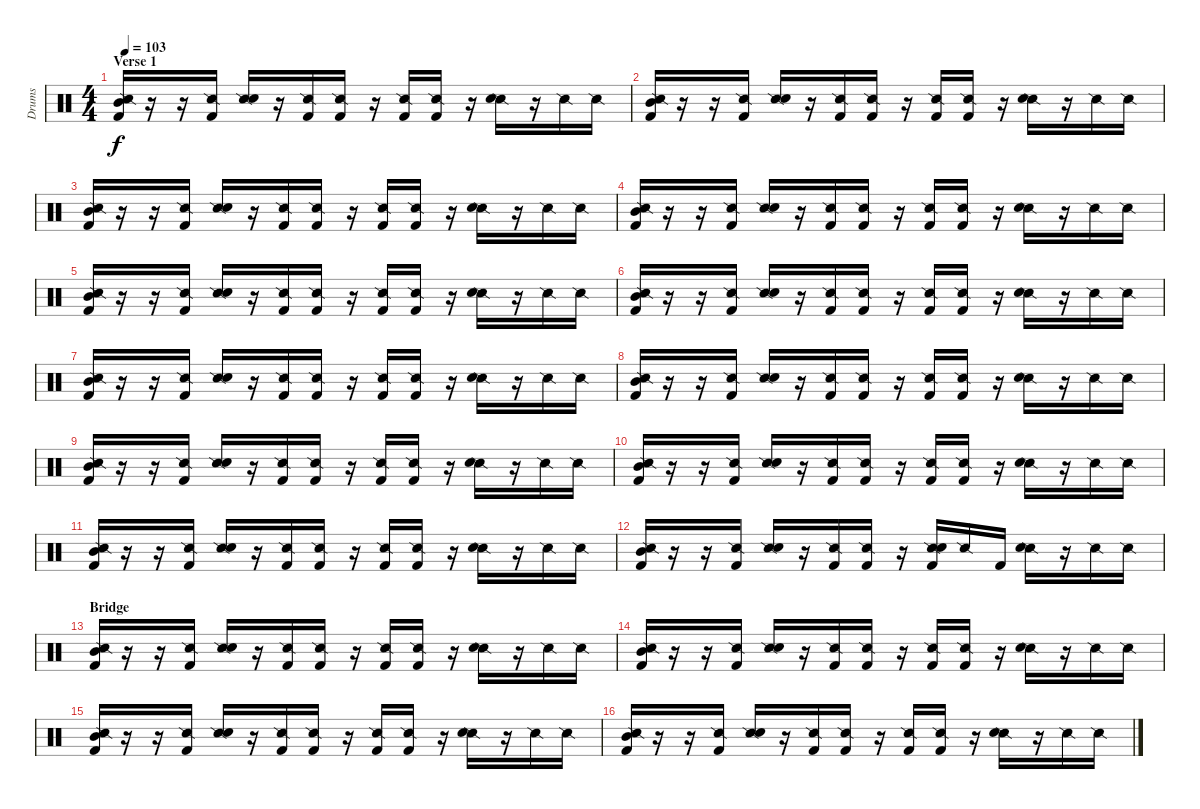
\track ("Drums" "Drums") {instrument percussion}
\staff {score}
\articulation defaults
\ts (4 4)
\section ("" "Verse 1")
\tempo 103
\clef neutral
\ks c
("Snare (side stick) 2" "Mid Tom (hit)" "Kick (hit) 2").16{dy f volume 11} r.16 r.16 ("Snare (side stick) 2" "Kick (hit) 2").16 ("Snare (side stick) 2" "Electric Snare (hit)").16 r.16 ("Snare (side stick) 2" "Kick (hit) 2").16 ("Snare (side stick) 2" "Kick (hit) 2").16 r.16 ("Snare (side stick) 2" "Kick (hit) 2").16 ("Snare (side stick) 2" "Kick (hit) 2").16 r.16 ("Snare (side stick) 2" "Electric Snare (hit)").16 r.16 "Snare (side stick) 2".16 "Snare (side stick) 2".16 |
("Snare (side stick) 2" "Mid Tom (hit)" "Kick (hit) 2").16{volume 11} r.16 r.16 ("Snare (side stick) 2" "Kick (hit) 2").16 ("Snare (side stick) 2" "Electric Snare (hit)").16 r.16 ("Snare (side stick) 2" "Kick (hit) 2").16 ("Snare (side stick) 2" "Kick (hit) 2").16 r.16 ("Snare (side stick) 2" "Kick (hit) 2").16 ("Snare (side stick) 2" "Kick (hit) 2").16 r.16 ("Snare (side stick) 2" "Electric Snare (hit)").16 r.16 "Snare (side stick) 2".16 "Snare (side stick) 2".16 |
("Snare (side stick) 2" "Mid Tom (hit)" "Kick (hit) 2").16{volume 11} r.16 r.16 ("Snare (side stick) 2" "Kick (hit) 2").16 ("Snare (side stick) 2" "Electric Snare (hit)").16 r.16 ("Snare (side stick) 2" "Kick (hit) 2").16 ("Snare (side stick) 2" "Kick (hit) 2").16 r.16 ("Snare (side stick) 2" "Kick (hit) 2").16 ("Snare (side stick) 2" "Kick (hit) 2").16 r.16 ("Snare (side stick) 2" "Electric Snare (hit)").16 r.16 "Snare (side stick) 2".16 "Snare (side stick) 2".16 |
("Snare (side stick) 2" "Mid Tom (hit)" "Kick (hit) 2").16{volume 11} r.16 r.16 ("Snare (side stick) 2" "Kick (hit) 2").16 ("Snare (side stick) 2" "Electric Snare (hit)").16 r.16 ("Snare (side stick) 2" "Kick (hit) 2").16 ("Snare (side stick) 2" "Kick (hit) 2").16 r.16 ("Snare (side stick) 2" "Kick (hit) 2").16 ("Snare (side stick) 2" "Kick (hit) 2").16 r.16 ("Snare (side stick) 2" "Electric Snare (hit)").16 r.16 "Snare (side stick) 2".16 "Snare (side stick) 2".16 |
("Snare (side stick) 2" "Mid Tom (hit)" "Kick (hit) 2").16{volume 11} r.16 r.16 ("Snare (side stick) 2" "Kick (hit) 2").16 ("Snare (side stick) 2" "Electric Snare (hit)").16 r.16 ("Snare (side stick) 2" "Kick (hit) 2").16 ("Snare (side stick) 2" "Kick (hit) 2").16 r.16 ("Snare (side stick) 2" "Kick (hit) 2").16 ("Snare (side stick) 2" "Kick (hit) 2").16 r.16 ("Snare (side stick) 2" "Electric Snare (hit)").16 r.16 "Snare (side stick) 2".16 "Snare (side stick) 2".16 |
("Snare (side stick) 2" "Mid Tom (hit)" "Kick (hit) 2").16{volume 11} r.16 r.16 ("Snare (side stick) 2" "Kick (hit) 2").16 ("Snare (side stick) 2" "Electric Snare (hit)").16 r.16 ("Snare (side stick) 2" "Kick (hit) 2").16 ("Snare (side stick) 2" "Kick (hit) 2").16 r.16 ("Snare (side stick) 2" "Kick (hit) 2").16 ("Snare (side stick) 2" "Kick (hit) 2").16 r.16 ("Snare (side stick) 2" "Electric Snare (hit)").16 r.16 "Snare (side stick) 2".16 "Snare (side stick) 2".16 |
("Snare (side stick) 2" "Mid Tom (hit)" "Kick (hit) 2").16{volume 11} r.16 r.16 ("Snare (side stick) 2" "Kick (hit) 2").16 ("Snare (side stick) 2" "Electric Snare (hit)").16 r.16 ("Snare (side stick) 2" "Kick (hit) 2").16 ("Snare (side stick) 2" "Kick (hit) 2").16 r.16 ("Snare (side stick) 2" "Kick (hit) 2").16 ("Snare (side stick) 2" "Kick (hit) 2").16 r.16 ("Snare (side stick) 2" "Electric Snare (hit)").16 r.16 "Snare (side stick) 2".16 "Snare (side stick) 2".16 |
("Snare (side stick) 2" "Mid Tom (hit)" "Kick (hit) 2").16{volume 11} r.16 r.16 ("Snare (side stick) 2" "Kick (hit) 2").16 ("Snare (side stick) 2" "Electric Snare (hit)").16 r.16 ("Snare (side stick) 2" "Kick (hit) 2").16 ("Snare (side stick) 2" "Kick (hit) 2").16 r.16 ("Snare (side stick) 2" "Kick (hit) 2").16 ("Snare (side stick) 2" "Kick (hit) 2").16 r.16 ("Snare (side stick) 2" "Electric Snare (hit)").16 r.16 "Snare (side stick) 2".16 "Snare (side stick) 2".16 |
("Snare (side stick) 2" "Mid Tom (hit)" "Kick (hit) 2").16{volume 11} r.16 r.16 ("Snare (side stick) 2" "Kick (hit) 2").16 ("Snare (side stick) 2" "Electric Snare (hit)").16 r.16 ("Snare (side stick) 2" "Kick (hit) 2").16 ("Snare (side stick) 2" "Kick (hit) 2").16 r.16 ("Snare (side stick) 2" "Kick (hit) 2").16 ("Snare (side stick) 2" "Kick (hit) 2").16 r.16 ("Snare (side stick) 2" "Electric Snare (hit)").16 r.16 "Snare (side stick) 2".16 "Snare (side stick) 2".16 |
("Snare (side stick) 2" "Mid Tom (hit)" "Kick (hit) 2").16{volume 11} r.16 r.16 ("Snare (side stick) 2" "Kick (hit) 2").16 ("Snare (side stick) 2" "Electric Snare (hit)").16 r.16 ("Snare (side stick) 2" "Kick (hit) 2").16 ("Snare (side stick) 2" "Kick (hit) 2").16 r.16 ("Snare (side stick) 2" "Kick (hit) 2").16 ("Snare (side stick) 2" "Kick (hit) 2").16 r.16 ("Snare (side stick) 2" "Electric Snare (hit)").16 r.16 "Snare (side stick) 2".16 "Snare (side stick) 2".16 |
("Snare (side stick) 2" "Mid Tom (hit)" "Kick (hit) 2").16{volume 11} r.16 r.16 ("Snare (side stick) 2" "Kick (hit) 2").16 ("Snare (side stick) 2" "Electric Snare (hit)").16 r.16 ("Snare (side stick) 2" "Kick (hit) 2").16 ("Snare (side stick) 2" "Kick (hit) 2").16 r.16 ("Snare (side stick) 2" "Kick (hit) 2").16 ("Snare (side stick) 2" "Kick (hit) 2").16 r.16 ("Snare (side stick) 2" "Electric Snare (hit)").16 r.16 "Snare (side stick) 2".16 "Snare (side stick) 2".16 |
("Snare (side stick) 2" "Mid Tom (hit)" "Kick (hit) 2").16{volume 11} r.16 r.16 ("Snare (side stick) 2" "Kick (hit) 2").16 ("Snare (side stick) 2" "Electric Snare (hit)").16 r.16 ("Snare (side stick) 2" "Kick (hit) 2").16 ("Snare (side stick) 2" "Kick (hit) 2").16 r.16 ("Snare (side stick) 2" "Electric Snare (hit)" "Kick (hit) 2").16 "Snare (side stick) 2".16 "Kick (hit) 2".16 ("Snare (side stick) 2" "Electric Snare (hit)").16 r.16 "Snare (side stick) 2".16 "Snare (side stick) 2".16 |
\section ("" "Bridge")
("Snare (side stick) 2" "Mid Tom (hit)" "Kick (hit) 2").16{volume 11} r.16 r.16 ("Snare (side stick) 2" "Kick (hit) 2").16 ("Snare (side stick) 2" "Electric Snare (hit)").16 r.16 ("Snare (side stick) 2" "Kick (hit) 2").16 ("Snare (side stick) 2" "Kick (hit) 2").16 r.16 ("Snare (side stick) 2" "Kick (hit) 2").16 ("Snare (side stick) 2" "Kick (hit) 2").16 r.16 ("Snare (side stick) 2" "Electric Snare (hit)").16 r.16 "Snare (side stick) 2".16 "Snare (side stick) 2".16 |
("Snare (side stick) 2" "Mid Tom (hit)" "Kick (hit) 2").16{volume 11} r.16 r.16 ("Snare (side stick) 2" "Kick (hit) 2").16 ("Snare (side stick) 2" "Electric Snare (hit)").16 r.16 ("Snare (side stick) 2" "Kick (hit) 2").16 ("Snare (side stick) 2" "Kick (hit) 2").16 r.16 ("Snare (side stick) 2" "Kick (hit) 2").16 ("Snare (side stick) 2" "Kick (hit) 2").16 r.16 ("Snare (side stick) 2" "Electric Snare (hit)").16 r.16 "Snare (side stick) 2".16 "Snare (side stick) 2".16 |
("Snare (side stick) 2" "Mid Tom (hit)" "Kick (hit) 2").16{volume 11} r.16 r.16 ("Snare (side stick) 2" "Kick (hit) 2").16 ("Snare (side stick) 2" "Electric Snare (hit)").16 r.16 ("Snare (side stick) 2" "Kick (hit) 2").16 ("Snare (side stick) 2" "Kick (hit) 2").16 r.16 ("Snare (side stick) 2" "Kick (hit) 2").16 ("Snare (side stick) 2" "Kick (hit) 2").16 r.16 ("Snare (side stick) 2" "Electric Snare (hit)").16 r.16 "Snare (side stick) 2".16 "Snare (side stick) 2".16 |
("Snare (side stick) 2" "Mid Tom (hit)" "Kick (hit) 2").16{volume 11} r.16 r.16 ("Snare (side stick) 2" "Kick (hit) 2").16 ("Snare (side stick) 2" "Electric Snare (hit)").16 r.16 ("Snare (side stick) 2" "Kick (hit) 2").16 ("Snare (side stick) 2" "Kick (hit) 2").16 r.16 ("Snare (side stick) 2" "Kick (hit) 2").16 ("Snare (side stick) 2" "Kick (hit) 2").16 r.16 ("Snare (side stick) 2" "Electric Snare (hit)").16 r.16 "Snare (side stick) 2".16 "Snare (side stick) 2".16
